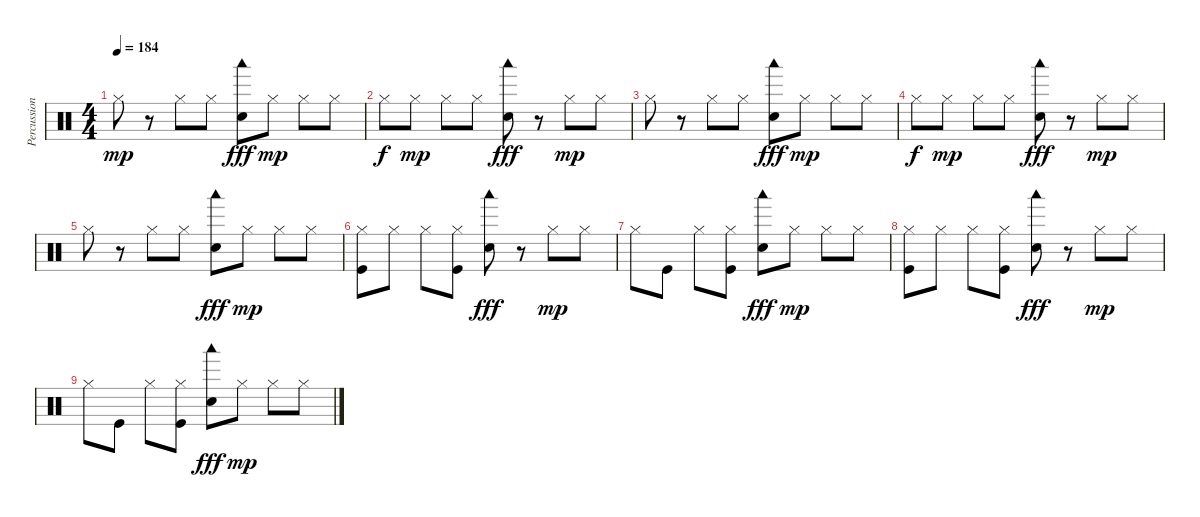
\track ("Percussion" "Percussion") {instrument percussion}
\staff {score}
\articulation defaults
\ts (4 4)
\tempo 184
\clef neutral
\ks c "Hi-Hat (closed)".8{dy mp}
r.8 "Hi-Hat (closed)".8 "Hi-Hat (closed)".8 ("Hand Clap (hit)" "Woodblock low (hit)").8{dy fff} "Hi-Hat (closed)".8{dy mp} "Hi-Hat (closed)".8 "Hi-Hat (closed)".8 |
"Hi-Hat (closed)".8{dy f} "Hi-Hat (closed)".8{dy mp} "Hi-Hat (closed)".8 "Hi-Hat (closed)".8 ("Hand Clap (hit)" "Woodblock low (hit)").8{dy fff} r.8 "Hi-Hat (closed)".8{dy mp} "Hi-Hat (closed)".8 |
"Hi-Hat (closed)".8 r.8 "Hi-Hat (closed)".8 "Hi-Hat (closed)".8 ("Hand Clap (hit)" "Woodblock low (hit)").8{dy fff} "Hi-Hat (closed)".8{dy mp} "Hi-Hat (closed)".8 "Hi-Hat (closed)".8 |
"Hi-Hat (closed)".8{dy f} "Hi-Hat (closed)".8{dy mp} "Hi-Hat (closed)".8 "Hi-Hat (closed)".8 ("Hand Clap (hit)" "Woodblock low (hit)").8{dy fff} r.8 "Hi-Hat (closed)".8{dy mp} "Hi-Hat (closed)".8 |
"Hi-Hat (closed)".8 r.8 "Hi-Hat (closed)".8 "Hi-Hat (closed)".8 ("Hand Clap (hit)" "Woodblock low (hit)").8{dy fff} "Hi-Hat (closed)".8{dy mp} "Hi-Hat (closed)".8 "Hi-Hat (closed)".8 |
("Kick (hit)" "Hi-Hat (closed)").8 "Hi-Hat (closed)".8 "Hi-Hat (closed)".8 ("Kick (hit)" "Hi-Hat (closed)").8 ("Hand Clap (hit)" "Woodblock low (hit)").8{dy fff} r.8 "Hi-Hat (closed)".8{dy mp} "Hi-Hat (closed)".8 |
"Hi-Hat (closed)".8 "Kick (hit)".8 "Hi-Hat (closed)".8 ("Kick (hit)" "Hi-Hat (closed)").8 ("Hand Clap (hit)" "Woodblock low (hit)").8{dy fff} "Hi-Hat (closed)".8{dy mp} "Hi-Hat (closed)".8 "Hi-Hat (closed)".8 |
("Kick (hit)" "Hi-Hat (closed)").8 "Hi-Hat (closed)".8 "Hi-Hat (closed)".8 ("Kick (hit)" "Hi-Hat (closed)").8 ("Hand Clap (hit)" "Woodblock low (hit)").8{dy fff} r.8 "Hi-Hat (closed)".8{dy mp} "Hi-Hat (closed)".8 |
"Hi-Hat (closed)".8 "Kick (hit)".8 "Hi-Hat (closed)".8 ("Kick (hit)" "Hi-Hat (closed)").8 ("Hand Clap (hit)" "Woodblock low (hit)").8{dy fff} "Hi-Hat (closed)".8{dy mp} "Hi-Hat (closed)".8 "Hi-Hat (closed)".8
